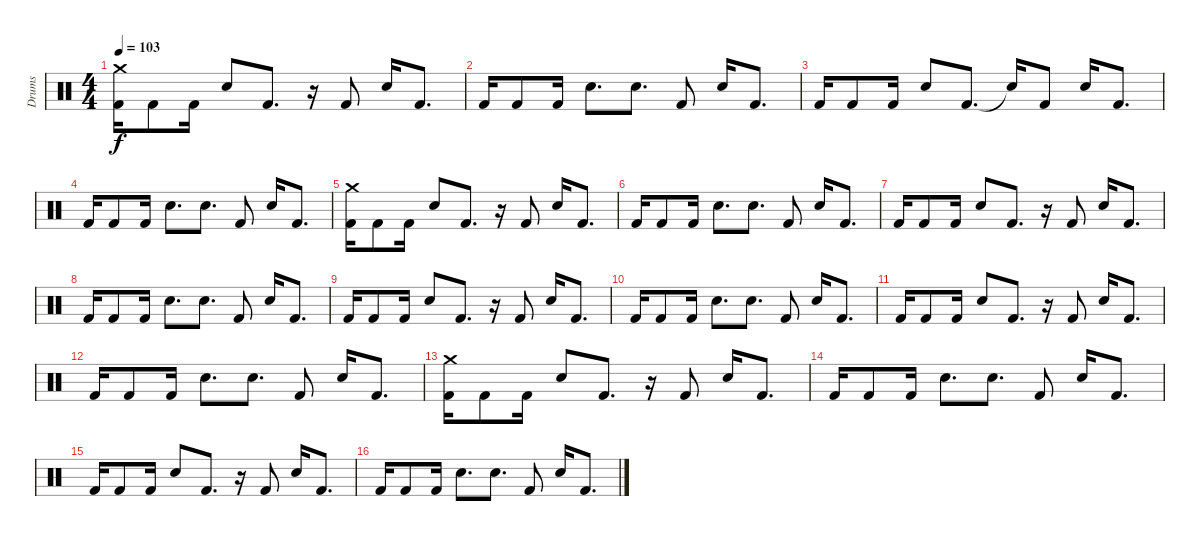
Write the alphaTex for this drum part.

\track ("Drums" "Drums") {instrument percussion}
\staff {score}
\articulation defaults
\ts (4 4)
\tempo 103
\clef neutral
\ks c
("Kick (hit) 2" "Crash medium (hit)").16{dy f} "Kick (hit) 2".8 "Kick (hit) 2".16 "Electric Snare (hit)".8 "Kick (hit) 2".8{d} r.16 "Kick (hit) 2".8 "Electric Snare (hit)".16 "Kick (hit) 2".8{d} |
"Kick (hit) 2".16 "Kick (hit) 2".8 "Kick (hit) 2".16 "Electric Snare (hit)".8{d} "Electric Snare (hit)".8{d} "Kick (hit) 2".8 "Electric Snare (hit)".16 "Kick (hit) 2".8{d} |
"Kick (hit) 2".16 "Kick (hit) 2".8 "Kick (hit) 2".16 "Electric Snare (hit)".8 "Kick (hit) 2".8{d} "Snare (hit)"{t}.16 "Kick (hit) 2".8 "Electric Snare (hit)".16 "Kick (hit) 2".8{d} |
"Kick (hit) 2".16 "Kick (hit) 2".8 "Kick (hit) 2".16 "Electric Snare (hit)".8{d} "Electric Snare (hit)".8{d} "Kick (hit) 2".8 "Electric Snare (hit)".16 "Kick (hit) 2".8{d} |
("Kick (hit) 2" "Crash medium (hit)").16 "Kick (hit) 2".8 "Kick (hit) 2".16 "Electric Snare (hit)".8 "Kick (hit) 2".8{d} r.16 "Kick (hit) 2".8 "Electric Snare (hit)".16 "Kick (hit) 2".8{d} |
"Kick (hit) 2".16 "Kick (hit) 2".8 "Kick (hit) 2".16 "Electric Snare (hit)".8{d} "Electric Snare (hit)".8{d} "Kick (hit) 2".8 "Electric Snare (hit)".16 "Kick (hit) 2".8{d} |
"Kick (hit) 2".16 "Kick (hit) 2".8 "Kick (hit) 2".16 "Electric Snare (hit)".8 "Kick (hit) 2".8{d} r.16 "Kick (hit) 2".8 "Electric Snare (hit)".16 "Kick (hit) 2".8{d} |
"Kick (hit) 2".16 "Kick (hit) 2".8 "Kick (hit) 2".16 "Electric Snare (hit)".8{d} "Electric Snare (hit)".8{d} "Kick (hit) 2".8 "Electric Snare (hit)".16 "Kick (hit) 2".8{d} |
"Kick (hit) 2".16 "Kick (hit) 2".8 "Kick (hit) 2".16 "Electric Snare (hit)".8 "Kick (hit) 2".8{d} r.16 "Kick (hit) 2".8 "Electric Snare (hit)".16 "Kick (hit) 2".8{d} |
"Kick (hit) 2".16 "Kick (hit) 2".8 "Kick (hit) 2".16 "Electric Snare (hit)".8{d} "Electric Snare (hit)".8{d} "Kick (hit) 2".8 "Electric Snare (hit)".16 "Kick (hit) 2".8{d} |
"Kick (hit) 2".16 "Kick (hit) 2".8 "Kick (hit) 2".16 "Electric Snare (hit)".8 "Kick (hit) 2".8{d} r.16 "Kick (hit) 2".8 "Electric Snare (hit)".16 "Kick (hit) 2".8{d} |
"Kick (hit) 2".16 "Kick (hit) 2".8 "Kick (hit) 2".16 "Electric Snare (hit)".8{d} "Electric Snare (hit)".8{d} "Kick (hit) 2".8 "Electric Snare (hit)".16 "Kick (hit) 2".8{d} |
("Kick (hit) 2" "Crash medium (hit)").16 "Kick (hit) 2".8 "Kick (hit) 2".16 "Electric Snare (hit)".8 "Kick (hit) 2".8{d} r.16 "Kick (hit) 2".8 "Electric Snare (hit)".16 "Kick (hit) 2".8{d} |
"Kick (hit) 2".16 "Kick (hit) 2".8 "Kick (hit) 2".16 "Electric Snare (hit)".8{d} "Electric Snare (hit)".8{d} "Kick (hit) 2".8 "Electric Snare (hit)".16 "Kick (hit) 2".8{d} |
"Kick (hit) 2".16 "Kick (hit) 2".8 "Kick (hit) 2".16 "Electric Snare (hit)".8 "Kick (hit) 2".8{d} r.16 "Kick (hit) 2".8 "Electric Snare (hit)".16 "Kick (hit) 2".8{d} |
"Kick (hit) 2".16 "Kick (hit) 2".8 "Kick (hit) 2".16 "Electric Snare (hit)".8{d} "Electric Snare (hit)".8{d} "Kick (hit) 2".8 "Electric Snare (hit)".16 "Kick (hit) 2".8{d}
